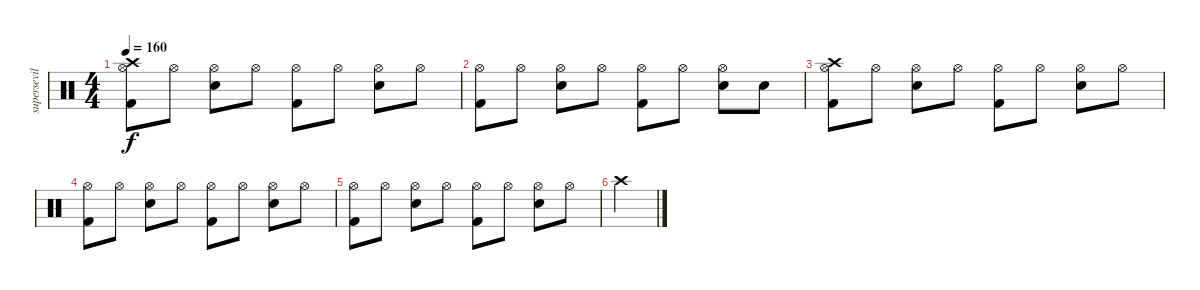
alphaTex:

\track ("supersevilla" "supersevil") {instrument percussion}
\staff {score}
\articulation defaults
\ts (4 4)
\tempo 160
\clef neutral
\ks c
("Hi-Hat (open)" "Kick (hit) 2" "Crash high (hit)").8{dy f} "Hi-Hat (open)".8 ("Hi-Hat (open)" "Electric Snare (hit)").8 "Hi-Hat (open)".8 ("Hi-Hat (open)" "Kick (hit) 2").8 "Hi-Hat (open)".8 ("Hi-Hat (open)" "Electric Snare (hit)").8 "Hi-Hat (open)".8 |
("Hi-Hat (open)" "Kick (hit) 2").8 "Hi-Hat (open)".8 ("Hi-Hat (open)" "Electric Snare (hit)").8 "Hi-Hat (open)".8 ("Hi-Hat (open)" "Kick (hit) 2").8 "Hi-Hat (open)".8 ("Hi-Hat (open)" "Electric Snare (hit)").8 "Electric Snare (hit)".8 |
("Hi-Hat (open)" "Kick (hit) 2" "Crash high (hit)").8 "Hi-Hat (open)".8 ("Hi-Hat (open)" "Electric Snare (hit)").8 "Hi-Hat (open)".8 ("Hi-Hat (open)" "Kick (hit) 2").8 "Hi-Hat (open)".8 ("Hi-Hat (open)" "Electric Snare (hit)").8 "Hi-Hat (open)".8 |
("Hi-Hat (open)" "Kick (hit) 2").8 "Hi-Hat (open)".8 ("Hi-Hat (open)" "Electric Snare (hit)").8 "Hi-Hat (open)".8 ("Hi-Hat (open)" "Kick (hit) 2").8 "Hi-Hat (open)".8 ("Hi-Hat (open)" "Electric Snare (hit)").8 "Hi-Hat (open)".8 |
("Hi-Hat (open)" "Kick (hit) 2").8 "Hi-Hat (open)".8 ("Hi-Hat (open)" "Electric Snare (hit)").8 "Hi-Hat (open)".8 ("Hi-Hat (open)" "Kick (hit) 2").8 "Hi-Hat (open)".8 ("Hi-Hat (open)" "Electric Snare (hit)").8 "Hi-Hat (open)".8 |
"Crash high (hit)".4
